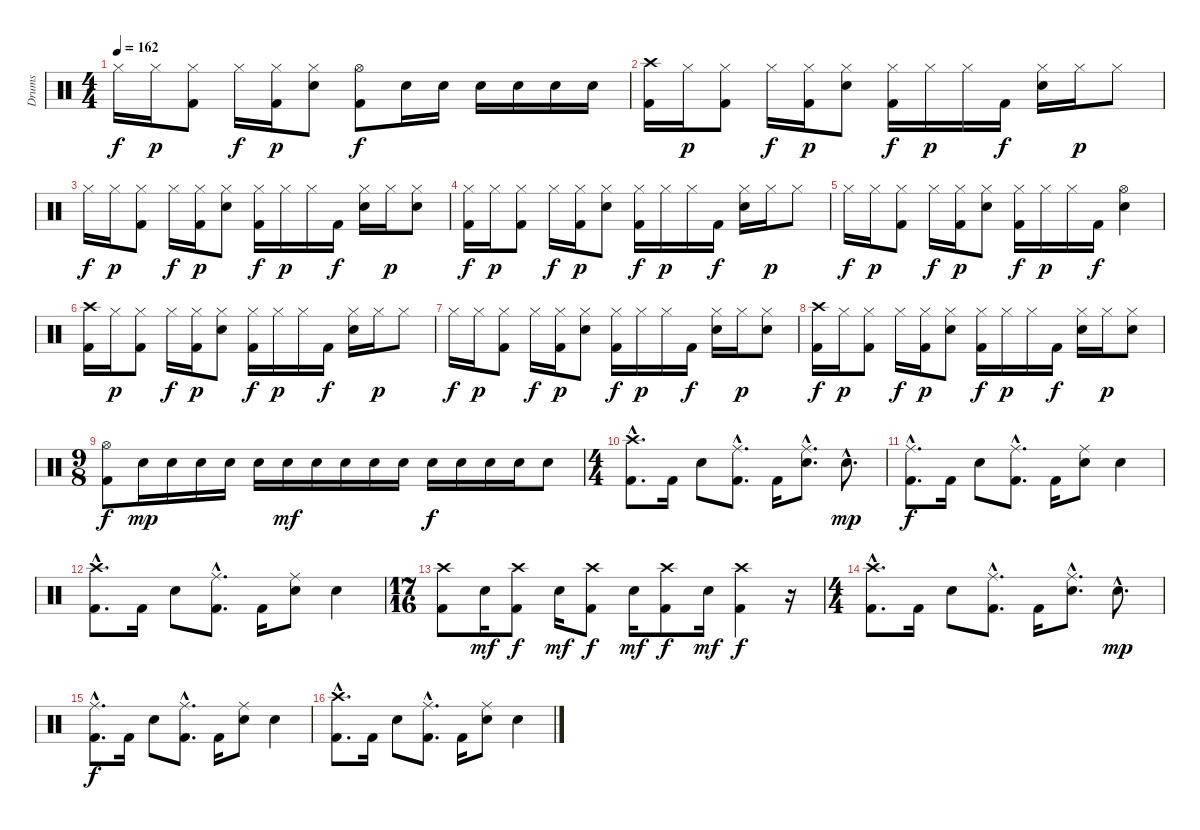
\track ("Drums" "Drums") {instrument percussion}
\staff {score}
\articulation defaults
\ts (4 4)
\tempo 162
\clef neutral
\ks c "Hi-Hat (closed)".16{dy f} "Hi-Hat (closed)".16{dy p}
("Hi-Hat (closed)" "Kick (hit) 2").8 "Hi-Hat (closed)".16{dy f} ("Hi-Hat (closed)" "Kick (hit) 2").16{dy p} ("Hi-Hat (closed)" "Electric Snare (hit)").8 ("Hi-Hat (open)" "Kick (hit) 2").8{dy f} "Electric Snare (hit)".16 "Electric Snare (hit)".16 "Electric Snare (hit)".16 "Electric Snare (hit)".16 "Electric Snare (hit)".16 "Electric Snare (hit)".16 |
("Crash high (hit)" "Kick (hit) 2").16 "Hi-Hat (closed)".16{dy p} ("Hi-Hat (closed)" "Kick (hit) 2").8 "Hi-Hat (closed)".16{dy f} ("Hi-Hat (closed)" "Kick (hit) 2").16{dy p} ("Hi-Hat (closed)" "Electric Snare (hit)").8 ("Hi-Hat (closed)" "Kick (hit) 2").16{dy f} "Hi-Hat (closed)".16{dy p} "Hi-Hat (closed)".16 "Kick (hit) 2".16{dy f} ("Hi-Hat (closed)" "Electric Snare (hit)").16 "Hi-Hat (closed)".16{dy p} "Hi-Hat (closed)".8 |
"Hi-Hat (closed)".16{dy f} "Hi-Hat (closed)".16{dy p} ("Hi-Hat (closed)" "Kick (hit) 2").8 "Hi-Hat (closed)".16{dy f} ("Hi-Hat (closed)" "Kick (hit) 2").16{dy p} ("Hi-Hat (closed)" "Electric Snare (hit)").8 ("Hi-Hat (closed)" "Kick (hit) 2").16{dy f} "Hi-Hat (closed)".16{dy p} "Hi-Hat (closed)".16 "Kick (hit) 2".16{dy f} ("Hi-Hat (closed)" "Electric Snare (hit)").16 "Hi-Hat (closed)".16{dy p} ("Hi-Hat (closed)" "Electric Snare (hit)").8 |
("Hi-Hat (closed)" "Kick (hit) 2").16{dy f} "Hi-Hat (closed)".16{dy p} ("Hi-Hat (closed)" "Kick (hit) 2").8 "Hi-Hat (closed)".16{dy f} ("Hi-Hat (closed)" "Kick (hit) 2").16{dy p} ("Hi-Hat (closed)" "Electric Snare (hit)").8 ("Hi-Hat (closed)" "Kick (hit) 2").16{dy f} "Hi-Hat (closed)".16{dy p} "Hi-Hat (closed)".16 "Kick (hit) 2".16{dy f} ("Hi-Hat (closed)" "Electric Snare (hit)").16 "Hi-Hat (closed)".16{dy p} "Hi-Hat (closed)".8 |
"Hi-Hat (closed)".16{dy f} "Hi-Hat (closed)".16{dy p} ("Hi-Hat (closed)" "Kick (hit) 2").8 "Hi-Hat (closed)".16{dy f} ("Hi-Hat (closed)" "Kick (hit) 2").16{dy p} ("Hi-Hat (closed)" "Electric Snare (hit)").8 ("Hi-Hat (closed)" "Kick (hit) 2").16{dy f} "Hi-Hat (closed)".16{dy p} "Hi-Hat (closed)".16 "Kick (hit) 2".16{dy f} ("Hi-Hat (open)" "Electric Snare (hit)").4 |
("Crash high (hit)" "Kick (hit) 2").16 "Hi-Hat (closed)".16{dy p} ("Hi-Hat (closed)" "Kick (hit) 2").8 "Hi-Hat (closed)".16{dy f} ("Hi-Hat (closed)" "Kick (hit) 2").16{dy p} ("Hi-Hat (closed)" "Electric Snare (hit)").8 ("Hi-Hat (closed)" "Kick (hit) 2").16{dy f} "Hi-Hat (closed)".16{dy p} "Hi-Hat (closed)".16 "Kick (hit) 2".16{dy f} ("Hi-Hat (closed)" "Electric Snare (hit)").16 "Hi-Hat (closed)".16{dy p} "Hi-Hat (closed)".8 |
"Hi-Hat (closed)".16{dy f} "Hi-Hat (closed)".16{dy p} ("Hi-Hat (closed)" "Kick (hit) 2").8 "Hi-Hat (closed)".16{dy f} ("Hi-Hat (closed)" "Kick (hit) 2").16{dy p} ("Hi-Hat (closed)" "Electric Snare (hit)").8 ("Hi-Hat (closed)" "Kick (hit) 2").16{dy f} "Hi-Hat (closed)".16{dy p} "Hi-Hat (closed)".16 "Kick (hit) 2".16{dy f} ("Hi-Hat (closed)" "Electric Snare (hit)").16 "Hi-Hat (closed)".16{dy p} ("Hi-Hat (closed)" "Electric Snare (hit)").8 |
("Crash high (hit)" "Kick (hit) 2").16{dy f} "Hi-Hat (closed)".16{dy p} ("Hi-Hat (closed)" "Kick (hit) 2").8 "Hi-Hat (closed)".16{dy f} ("Hi-Hat (closed)" "Kick (hit) 2").16{dy p} ("Hi-Hat (closed)" "Electric Snare (hit)").8 ("Hi-Hat (closed)" "Kick (hit) 2").16{dy f} "Hi-Hat (closed)".16{dy p} "Hi-Hat (closed)".16 "Kick (hit) 2".16{dy f} ("Hi-Hat (closed)" "Electric Snare (hit)").16 "Hi-Hat (closed)".16{dy p} ("Hi-Hat (closed)" "Electric Snare (hit)").8 |
\ts (9 8)
("Hi-Hat (open)" "Kick (hit) 2").8{dy f} "Electric Snare (hit)".16{dy mp} "Electric Snare (hit)".16 "Electric Snare (hit)".16 "Electric Snare (hit)".16 "Electric Snare (hit)".16 "Electric Snare (hit)".16{dy mf} "Electric Snare (hit)".16 "Electric Snare (hit)".16 "Electric Snare (hit)".16 "Electric Snare (hit)".16 "Electric Snare (hit)".16{dy f} "Electric Snare (hit)".16 "Electric Snare (hit)".16 "Electric Snare (hit)".16 "Electric Snare (hit)".8 |
\ts (4 4)
("Crash high (hit)"{hac} "Kick (hit) 2"{hac}).8{d} "Kick (hit) 2".16 "Electric Snare (hit)".8 ("Ride (middle)"{hac} "Kick (hit) 2"{hac}).8{d} "Kick (hit) 2".16 ("Ride (middle)"{hac} "Electric Snare (hit)"{hac}).8{d} "Electric Snare (hit)"{hac}.8{d dy mp} |
("Ride (middle)"{hac} "Kick (hit) 2"{hac}).8{d dy f} "Kick (hit) 2".16 "Electric Snare (hit)".8 ("Ride (middle)"{hac} "Kick (hit) 2"{hac}).8{d} "Kick (hit) 2".16 ("Ride (middle)" "Electric Snare (hit)").8 "Electric Snare (hit)".4 |
("Crash high (hit)"{hac} "Kick (hit) 2"{hac}).8{d} "Kick (hit) 2".16 "Electric Snare (hit)".8 ("Ride (middle)"{hac} "Kick (hit) 2"{hac}).8{d} "Kick (hit) 2".16 ("Ride (middle)" "Electric Snare (hit)").8 "Electric Snare (hit)".4 |
\ts (17 16)
("Crash high (hit)" "Kick (hit) 2").8 "Electric Snare (hit)".16{dy mf} ("Crash high (hit)" "Kick (hit) 2").8{dy f} "Electric Snare (hit)".16{dy mf} ("Crash high (hit)" "Kick (hit) 2").8{dy f} "Electric Snare (hit)".16{dy mf} ("Crash high (hit)" "Kick (hit) 2").8{dy f} "Electric Snare (hit)".16{dy mf} ("Crash high (hit)" "Kick (hit) 2").4{dy f} r.16 |
\ts (4 4)
("Crash high (hit)"{hac} "Kick (hit) 2"{hac}).8{d} "Kick (hit) 2".16 "Electric Snare (hit)".8 ("Ride (middle)"{hac} "Kick (hit) 2"{hac}).8{d} "Kick (hit) 2".16 ("Ride (middle)"{hac} "Electric Snare (hit)"{hac}).8{d} "Electric Snare (hit)"{hac}.8{d dy mp} |
("Ride (middle)"{hac} "Kick (hit) 2"{hac}).8{d dy f} "Kick (hit) 2".16 "Electric Snare (hit)".8 ("Ride (middle)"{hac} "Kick (hit) 2"{hac}).8{d} "Kick (hit) 2".16 ("Ride (middle)" "Electric Snare (hit)").8 "Electric Snare (hit)".4 |
("Crash high (hit)"{hac} "Kick (hit) 2"{hac}).8{d} "Kick (hit) 2".16 "Electric Snare (hit)".8 ("Ride (middle)"{hac} "Kick (hit) 2"{hac}).8{d} "Kick (hit) 2".16 ("Ride (middle)" "Electric Snare (hit)").8 "Electric Snare (hit)".4
